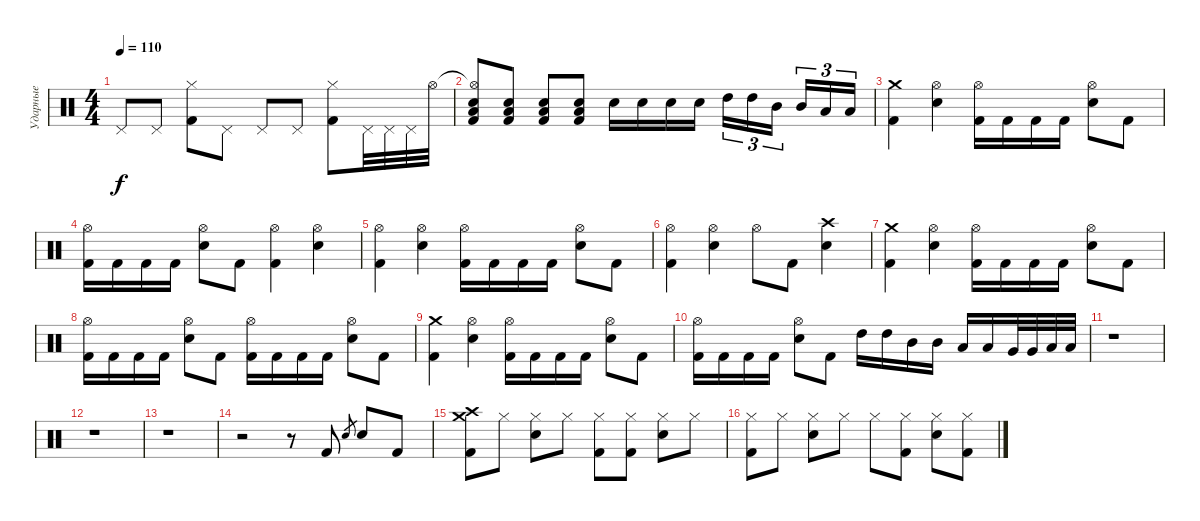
\track ("Ударные" "Ударные") {instrument percussion}
\staff {score}
\articulation defaults
\ts (4 4)
\tempo 110
\clef neutral
\ks c "Pedal Hi-Hat (hit)".8{dy f} "Pedal Hi-Hat (hit)".8
("Hi-Hat (closed)" "Kick (hit) 2").8 "Pedal Hi-Hat (hit)".8 "Pedal Hi-Hat (hit)".8 "Pedal Hi-Hat (hit)".8 ("Hi-Hat (closed)" "Kick (hit) 2").8 "Pedal Hi-Hat (hit)".32 "Pedal Hi-Hat (hit)".32 "Pedal Hi-Hat (hit)".32 "Hi-Hat (open)".32 |
("Hi-Hat (open)"{t} "Low Tom (hit)" "Electric Snare (hit)" "Kick (hit) 2").8 ("Low Tom (hit)" "Electric Snare (hit)" "Kick (hit) 2").8 ("Low Tom (hit)" "Electric Snare (hit)" "Kick (hit) 2").8 ("Low Tom (hit)" "Electric Snare (hit)" "Kick (hit) 2").8 "Electric Snare (hit)".16 "Electric Snare (hit)".16 "Electric Snare (hit)".16 "Electric Snare (hit)".16 "High Tom (hit)".16{tu (3 2)} "High Tom (hit)".16{tu (3 2)} "Mid Tom (hit)".16{tu (3 2) beam splitsecondary} "Mid Tom (hit)".16{tu (3 2)} "Low Tom (hit)".16{tu (3 2)} "Low Tom (hit)".16{tu (3 2)} |
("Crash medium (hit)" "Kick (hit) 2").4 ("Hi-Hat (open)" "Electric Snare (hit)").4 ("Hi-Hat (open)" "Kick (hit) 2").16 "Kick (hit) 2".16 "Kick (hit) 2".16 "Kick (hit) 2".16 ("Hi-Hat (open)" "Electric Snare (hit)").8 "Kick (hit) 2".8 |
("Hi-Hat (open)" "Kick (hit) 2").16 "Kick (hit) 2".16 "Kick (hit) 2".16 "Kick (hit) 2".16 ("Hi-Hat (open)" "Electric Snare (hit)").8 "Kick (hit) 2".8 ("Hi-Hat (open)" "Kick (hit) 2").4 ("Hi-Hat (open)" "Electric Snare (hit)").4 |
("Hi-Hat (open)" "Kick (hit) 2").4 ("Hi-Hat (open)" "Electric Snare (hit)").4 ("Hi-Hat (open)" "Kick (hit) 2").16 "Kick (hit) 2".16 "Kick (hit) 2".16 "Kick (hit) 2".16 ("Hi-Hat (open)" "Electric Snare (hit)").8 "Kick (hit) 2".8 |
("Hi-Hat (open)" "Kick (hit) 2").4 ("Hi-Hat (open)" "Electric Snare (hit)").4 "Hi-Hat (open)".8 "Kick (hit) 2".8 ("Crash high (hit)" "Electric Snare (hit)").4 |
("Crash medium (hit)" "Kick (hit) 2").4 ("Hi-Hat (open)" "Electric Snare (hit)").4 ("Hi-Hat (open)" "Kick (hit) 2").16 "Kick (hit) 2".16 "Kick (hit) 2".16 "Kick (hit) 2".16 ("Hi-Hat (open)" "Electric Snare (hit)").8 "Kick (hit) 2".8 |
("Hi-Hat (open)" "Kick (hit) 2").16 "Kick (hit) 2".16 "Kick (hit) 2".16 "Kick (hit) 2".16 ("Hi-Hat (open)" "Electric Snare (hit)").8 "Kick (hit) 2".8 ("Hi-Hat (open)" "Kick (hit) 2").16 "Kick (hit) 2".16 "Kick (hit) 2".16 "Kick (hit) 2".16 ("Hi-Hat (open)" "Electric Snare (hit)").8 "Kick (hit) 2".8 |
("Crash medium (hit)" "Kick (hit) 2").4 ("Hi-Hat (open)" "Electric Snare (hit)").4 ("Hi-Hat (open)" "Kick (hit) 2").16 "Kick (hit) 2".16 "Kick (hit) 2".16 "Kick (hit) 2".16 ("Hi-Hat (open)" "Electric Snare (hit)").8 "Kick (hit) 2".8 |
("Hi-Hat (open)" "Kick (hit) 2").16 "Kick (hit) 2".16 "Kick (hit) 2".16 "Kick (hit) 2".16 ("Hi-Hat (open)" "Electric Snare (hit)").8 "Kick (hit) 2".8 "High Tom (hit)".16 "High Tom (hit)".16 "Mid Tom (hit)".16 "Mid Tom (hit)".16 "Low Tom (hit)".16 "Low Tom (hit)".16 "Very Low Tom (hit)".32 "Very Low Tom (hit)".32 "Low Floor Tom (hit)".32 "Low Floor Tom (hit)".32 |
r.1 |
r.1 |
r.1 |
r.2 r.8 "Kick (hit) 2".8 "Electric Snare (hit)".8{gr} "Electric Snare (hit)".8 "Kick (hit) 2".8 |
("Crash medium (hit)" "Crash high (hit)" "Kick (hit) 2").8 "Hi-Hat (closed)".8 ("Hi-Hat (closed)" "Electric Snare (hit)").8 "Hi-Hat (closed)".8 ("Hi-Hat (closed)" "Kick (hit) 2").8 ("Hi-Hat (closed)" "Kick (hit) 2").8 ("Hi-Hat (closed)" "Electric Snare (hit)").8 "Hi-Hat (closed)".8 |
("Hi-Hat (closed)" "Kick (hit) 2").8 "Hi-Hat (closed)".8 ("Hi-Hat (closed)" "Electric Snare (hit)").8 "Hi-Hat (closed)".8 "Hi-Hat (closed)".8 ("Hi-Hat (closed)" "Kick (hit) 2").8 ("Hi-Hat (closed)" "Electric Snare (hit)").8 ("Hi-Hat (closed)" "Kick (hit) 2").8
